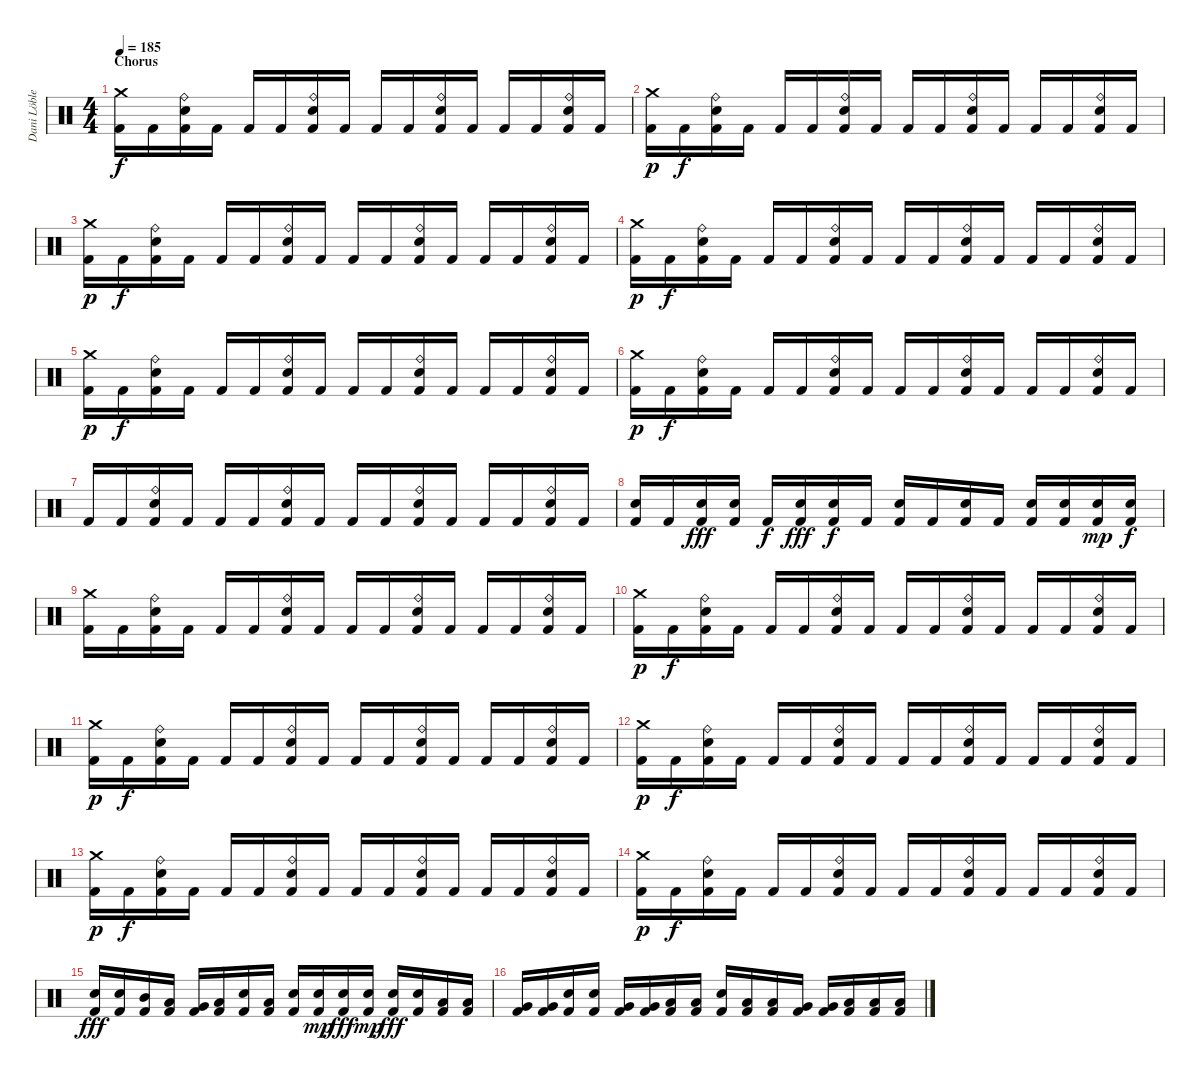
\track ("Dani Löble" "Dani Löble") {instrument percussion}
\staff {score}
\articulation defaults
\ts (4 4)
\section ("" "Chorus")
\tempo 185
\clef neutral
\ks c
("Crash medium (hit)" "Kick (hit) 2").16{dy f} "Kick (hit) 2".16 ("Ride (bell)" "Electric Snare (hit)" "Kick (hit) 2").16 "Kick (hit) 2".16 "Kick (hit) 2".16 "Kick (hit) 2".16 ("Ride (bell)" "Electric Snare (hit)" "Kick (hit) 2").16 "Kick (hit) 2".16 "Kick (hit) 2".16 "Kick (hit) 2".16 ("Ride (bell)" "Electric Snare (hit)" "Kick (hit) 2").16 "Kick (hit) 2".16 "Kick (hit) 2".16 "Kick (hit) 2".16 ("Ride (bell)" "Electric Snare (hit)" "Kick (hit) 2").16 "Kick (hit) 2".16 |
("Crash medium (hit)" "Kick (hit) 2").16{dy p} "Kick (hit) 2".16{dy f} ("Ride (bell)" "Electric Snare (hit)" "Kick (hit) 2").16 "Kick (hit) 2".16 "Kick (hit) 2".16 "Kick (hit) 2".16 ("Ride (bell)" "Electric Snare (hit)" "Kick (hit) 2").16 "Kick (hit) 2".16 "Kick (hit) 2".16 "Kick (hit) 2".16 ("Ride (bell)" "Electric Snare (hit)" "Kick (hit) 2").16 "Kick (hit) 2".16 "Kick (hit) 2".16 "Kick (hit) 2".16 ("Ride (bell)" "Electric Snare (hit)" "Kick (hit) 2").16 "Kick (hit) 2".16 |
("Crash medium (hit)" "Kick (hit) 2").16{dy p} "Kick (hit) 2".16{dy f} ("Ride (bell)" "Electric Snare (hit)" "Kick (hit) 2").16 "Kick (hit) 2".16 "Kick (hit) 2".16 "Kick (hit) 2".16 ("Ride (bell)" "Electric Snare (hit)" "Kick (hit) 2").16 "Kick (hit) 2".16 "Kick (hit) 2".16 "Kick (hit) 2".16 ("Ride (bell)" "Electric Snare (hit)" "Kick (hit) 2").16 "Kick (hit) 2".16 "Kick (hit) 2".16 "Kick (hit) 2".16 ("Ride (bell)" "Electric Snare (hit)" "Kick (hit) 2").16 "Kick (hit) 2".16 |
("Crash medium (hit)" "Kick (hit) 2").16{dy p} "Kick (hit) 2".16{dy f} ("Ride (bell)" "Electric Snare (hit)" "Kick (hit) 2").16 "Kick (hit) 2".16 "Kick (hit) 2".16 "Kick (hit) 2".16 ("Ride (bell)" "Electric Snare (hit)" "Kick (hit) 2").16 "Kick (hit) 2".16 "Kick (hit) 2".16 "Kick (hit) 2".16 ("Ride (bell)" "Electric Snare (hit)" "Kick (hit) 2").16 "Kick (hit) 2".16 "Kick (hit) 2".16 "Kick (hit) 2".16 ("Ride (bell)" "Electric Snare (hit)" "Kick (hit) 2").16 "Kick (hit) 2".16 |
("Crash medium (hit)" "Kick (hit) 2").16{dy p} "Kick (hit) 2".16{dy f} ("Ride (bell)" "Electric Snare (hit)" "Kick (hit) 2").16 "Kick (hit) 2".16 "Kick (hit) 2".16 "Kick (hit) 2".16 ("Ride (bell)" "Electric Snare (hit)" "Kick (hit) 2").16 "Kick (hit) 2".16 "Kick (hit) 2".16 "Kick (hit) 2".16 ("Ride (bell)" "Electric Snare (hit)" "Kick (hit) 2").16 "Kick (hit) 2".16 "Kick (hit) 2".16 "Kick (hit) 2".16 ("Ride (bell)" "Electric Snare (hit)" "Kick (hit) 2").16 "Kick (hit) 2".16 |
("Crash medium (hit)" "Kick (hit) 2").16{dy p} "Kick (hit) 2".16{dy f} ("Ride (bell)" "Electric Snare (hit)" "Kick (hit) 2").16 "Kick (hit) 2".16 "Kick (hit) 2".16 "Kick (hit) 2".16 ("Ride (bell)" "Electric Snare (hit)" "Kick (hit) 2").16 "Kick (hit) 2".16 "Kick (hit) 2".16 "Kick (hit) 2".16 ("Ride (bell)" "Electric Snare (hit)" "Kick (hit) 2").16 "Kick (hit) 2".16 "Kick (hit) 2".16 "Kick (hit) 2".16 ("Ride (bell)" "Electric Snare (hit)" "Kick (hit) 2").16 "Kick (hit) 2".16 |
"Kick (hit) 2".16 "Kick (hit) 2".16 ("Ride (bell)" "Electric Snare (hit)" "Kick (hit) 2").16 "Kick (hit) 2".16 "Kick (hit) 2".16 "Kick (hit) 2".16 ("Ride (bell)" "Electric Snare (hit)" "Kick (hit) 2").16 "Kick (hit) 2".16 "Kick (hit) 2".16 "Kick (hit) 2".16 ("Ride (bell)" "Electric Snare (hit)" "Kick (hit) 2").16 "Kick (hit) 2".16 "Kick (hit) 2".16 "Kick (hit) 2".16 ("Ride (bell)" "Electric Snare (hit)" "Kick (hit) 2").16 "Kick (hit) 2".16 |
("Electric Snare (hit)" "Kick (hit) 2").16 "Kick (hit) 2".16 ("Electric Snare (hit)" "Kick (hit) 2").16{dy fff} ("Electric Snare (hit)" "Kick (hit) 2").16 "Kick (hit) 2".16{dy f} ("Electric Snare (hit)" "Kick (hit) 2").16{dy fff} ("Electric Snare (hit)" "Kick (hit) 2").16{dy f} "Kick (hit) 2".16 ("Electric Snare (hit)" "Kick (hit) 2").16 "Kick (hit) 2".16 ("Electric Snare (hit)" "Kick (hit) 2").16 "Kick (hit) 2".16 ("Electric Snare (hit)" "Kick (hit) 2").16 ("Electric Snare (hit)" "Kick (hit) 2").16 ("Electric Snare (hit)" "Kick (hit) 2").16{dy mp} ("Electric Snare (hit)" "Kick (hit) 2").16{dy f} |
("Crash medium (hit)" "Kick (hit) 2").16 "Kick (hit) 2".16 ("Ride (bell)" "Electric Snare (hit)" "Kick (hit) 2").16 "Kick (hit) 2".16 "Kick (hit) 2".16 "Kick (hit) 2".16 ("Ride (bell)" "Electric Snare (hit)" "Kick (hit) 2").16 "Kick (hit) 2".16 "Kick (hit) 2".16 "Kick (hit) 2".16 ("Ride (bell)" "Electric Snare (hit)" "Kick (hit) 2").16 "Kick (hit) 2".16 "Kick (hit) 2".16 "Kick (hit) 2".16 ("Ride (bell)" "Electric Snare (hit)" "Kick (hit) 2").16 "Kick (hit) 2".16 |
("Crash medium (hit)" "Kick (hit) 2").16{dy p} "Kick (hit) 2".16{dy f} ("Ride (bell)" "Electric Snare (hit)" "Kick (hit) 2").16 "Kick (hit) 2".16 "Kick (hit) 2".16 "Kick (hit) 2".16 ("Ride (bell)" "Electric Snare (hit)" "Kick (hit) 2").16 "Kick (hit) 2".16 "Kick (hit) 2".16 "Kick (hit) 2".16 ("Ride (bell)" "Electric Snare (hit)" "Kick (hit) 2").16 "Kick (hit) 2".16 "Kick (hit) 2".16 "Kick (hit) 2".16 ("Ride (bell)" "Electric Snare (hit)" "Kick (hit) 2").16 "Kick (hit) 2".16 |
("Crash medium (hit)" "Kick (hit) 2").16{dy p} "Kick (hit) 2".16{dy f} ("Ride (bell)" "Electric Snare (hit)" "Kick (hit) 2").16 "Kick (hit) 2".16 "Kick (hit) 2".16 "Kick (hit) 2".16 ("Ride (bell)" "Electric Snare (hit)" "Kick (hit) 2").16 "Kick (hit) 2".16 "Kick (hit) 2".16 "Kick (hit) 2".16 ("Ride (bell)" "Electric Snare (hit)" "Kick (hit) 2").16 "Kick (hit) 2".16 "Kick (hit) 2".16 "Kick (hit) 2".16 ("Ride (bell)" "Electric Snare (hit)" "Kick (hit) 2").16 "Kick (hit) 2".16 |
("Crash medium (hit)" "Kick (hit) 2").16{dy p} "Kick (hit) 2".16{dy f} ("Ride (bell)" "Electric Snare (hit)" "Kick (hit) 2").16 "Kick (hit) 2".16 "Kick (hit) 2".16 "Kick (hit) 2".16 ("Ride (bell)" "Electric Snare (hit)" "Kick (hit) 2").16 "Kick (hit) 2".16 "Kick (hit) 2".16 "Kick (hit) 2".16 ("Ride (bell)" "Electric Snare (hit)" "Kick (hit) 2").16 "Kick (hit) 2".16 "Kick (hit) 2".16 "Kick (hit) 2".16 ("Ride (bell)" "Electric Snare (hit)" "Kick (hit) 2").16 "Kick (hit) 2".16 |
("Crash medium (hit)" "Kick (hit) 2").16{dy p} "Kick (hit) 2".16{dy f} ("Ride (bell)" "Electric Snare (hit)" "Kick (hit) 2").16 "Kick (hit) 2".16 "Kick (hit) 2".16 "Kick (hit) 2".16 ("Ride (bell)" "Electric Snare (hit)" "Kick (hit) 2").16 "Kick (hit) 2".16 "Kick (hit) 2".16 "Kick (hit) 2".16 ("Ride (bell)" "Electric Snare (hit)" "Kick (hit) 2").16 "Kick (hit) 2".16 "Kick (hit) 2".16 "Kick (hit) 2".16 ("Ride (bell)" "Electric Snare (hit)" "Kick (hit) 2").16 "Kick (hit) 2".16 |
("Crash medium (hit)" "Kick (hit) 2").16{dy p} "Kick (hit) 2".16{dy f} ("Ride (bell)" "Electric Snare (hit)" "Kick (hit) 2").16 "Kick (hit) 2".16 "Kick (hit) 2".16 "Kick (hit) 2".16 ("Ride (bell)" "Electric Snare (hit)" "Kick (hit) 2").16 "Kick (hit) 2".16 "Kick (hit) 2".16 "Kick (hit) 2".16 ("Ride (bell)" "Electric Snare (hit)" "Kick (hit) 2").16 "Kick (hit) 2".16 "Kick (hit) 2".16 "Kick (hit) 2".16 ("Ride (bell)" "Electric Snare (hit)" "Kick (hit) 2").16 "Kick (hit) 2".16 |
("Electric Snare (hit)" "Kick (hit) 2").16{dy fff} ("Electric Snare (hit)" "Kick (hit) 2").16 ("Mid Tom (hit)" "Kick (hit) 2").16 ("Low Tom (hit)" "Kick (hit) 2").16 ("Very Low Tom (hit)" "Kick (hit) 2").16 ("Low Floor Tom (hit)" "Kick (hit) 2").16 ("Electric Snare (hit)" "Kick (hit) 2").16 ("Low Tom (hit)" "Kick (hit) 2").16 ("Electric Snare (hit)" "Kick (hit) 2").16 ("Electric Snare (hit)" "Kick (hit) 2").16{dy mp} ("Electric Snare (hit)" "Kick (hit) 2").16{dy fff} ("Electric Snare (hit)" "Kick (hit) 2").16{dy mp} ("Electric Snare (hit)" "Kick (hit) 2").16{dy fff} ("Electric Snare (hit)" "Kick (hit) 2").16 ("Low Tom (hit)" "Kick (hit) 2").16 ("Low Tom (hit)" "Kick (hit) 2").16 |
("Very Low Tom (hit)" "Kick (hit) 2").16 ("Very Low Tom (hit)" "Kick (hit) 2").16 ("Electric Snare (hit)" "Kick (hit) 2").16 ("Electric Snare (hit)" "Kick (hit) 2").16 ("Very Low Tom (hit)" "Kick (hit) 2").16 ("Very Low Tom (hit)" "Kick (hit) 2").16 ("Low Tom (hit)" "Kick (hit) 2").16 ("Low Tom (hit)" "Kick (hit) 2").16 ("Electric Snare (hit)" "Kick (hit) 2").16 ("Low Tom (hit)" "Kick (hit) 2").16 ("Low Tom (hit)" "Kick (hit) 2").16 ("Very Low Tom (hit)" "Kick (hit) 2").16 ("Very Low Tom (hit)" "Kick (hit) 2").16 ("Low Floor Tom (hit)" "Kick (hit) 2").16 ("Low Floor Tom (hit)" "Kick (hit) 2").16 ("Low Floor Tom (hit)" "Kick (hit) 2").16
